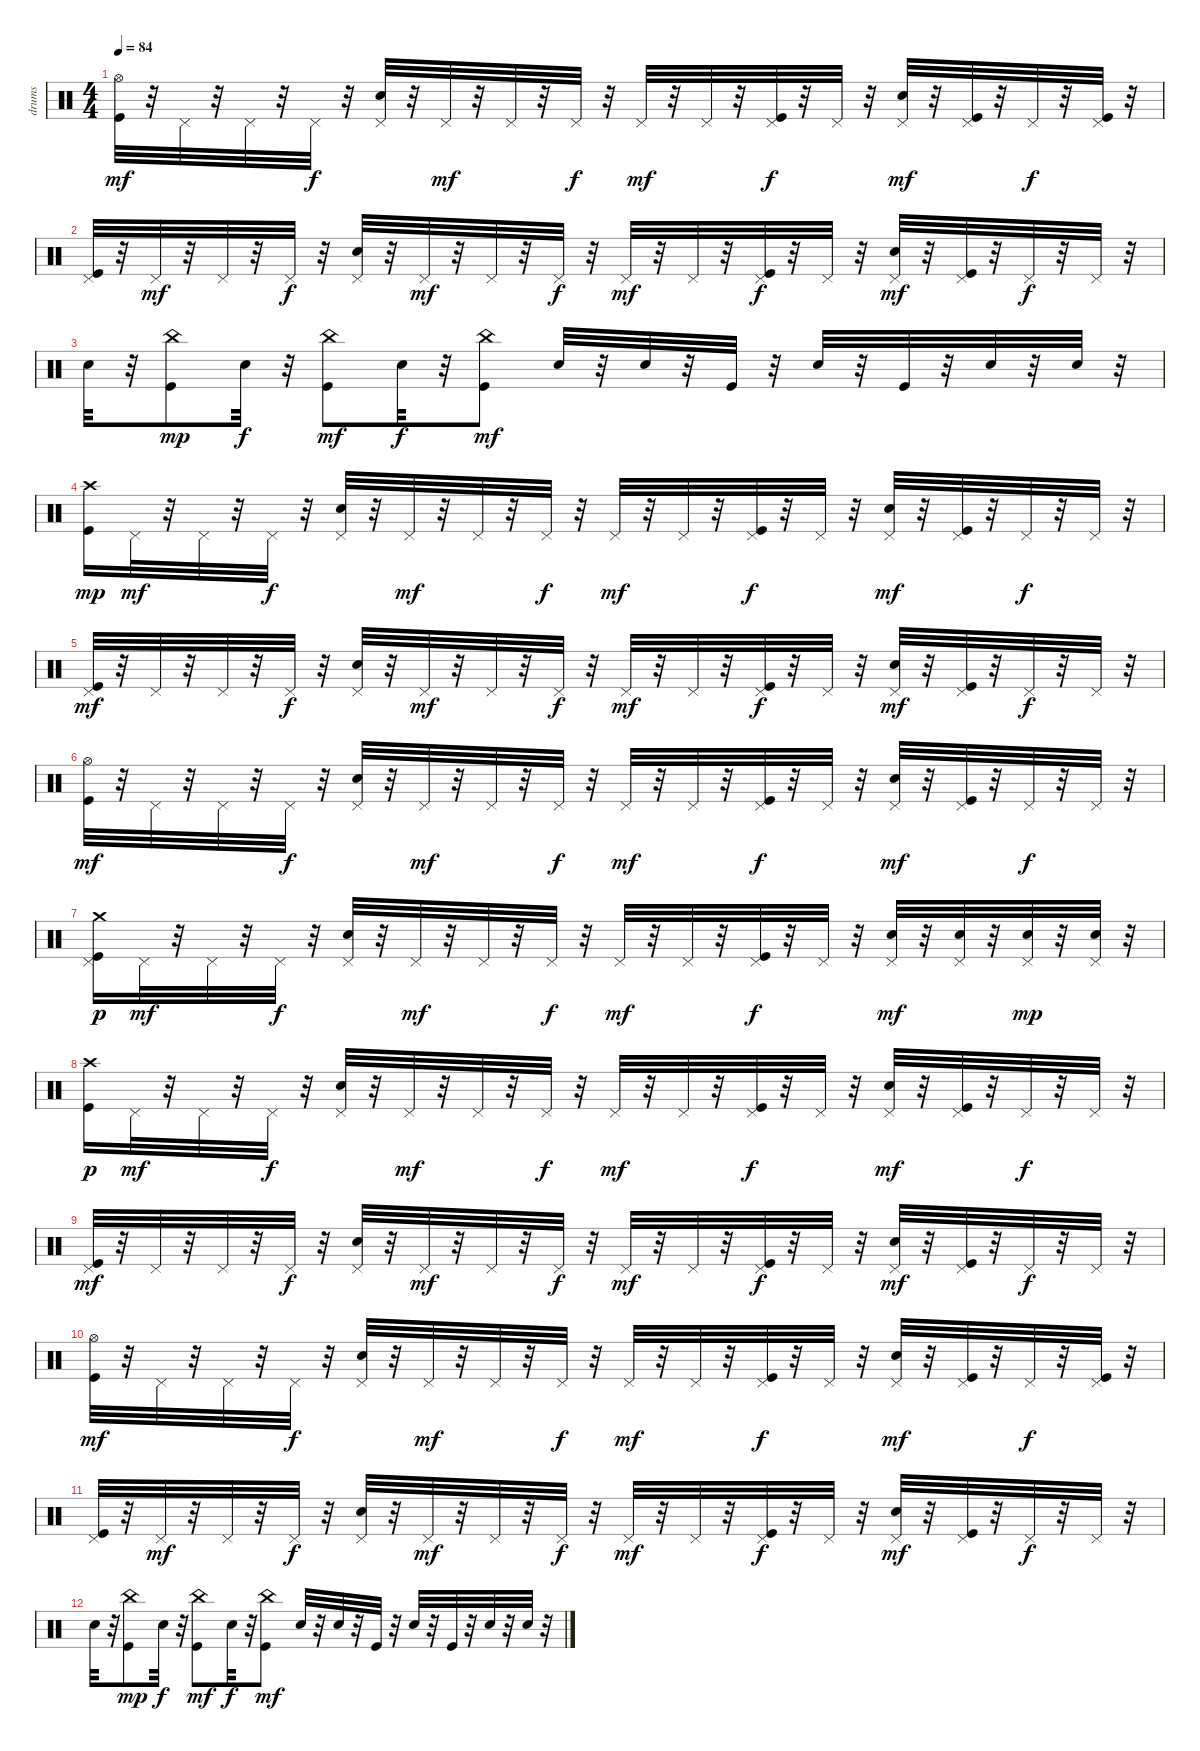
\track ("drums" "drums") {instrument percussion}
\staff {score}
\articulation defaults
\ts (4 4)
\tempo 84
\clef neutral
\ks c
("Kick (hit)" "Hi-Hat (open)").32{dy mf} r.32 "Pedal Hi-Hat (hit)".32 r.32 "Pedal Hi-Hat (hit)".32 r.32 "Pedal Hi-Hat (hit)".32{dy f} r.32 ("Snare (hit) 2" "Pedal Hi-Hat (hit)").32 r.32 "Pedal Hi-Hat (hit)".32{dy mf} r.32 "Pedal Hi-Hat (hit)".32 r.32 "Pedal Hi-Hat (hit)".32{dy f} r.32 "Pedal Hi-Hat (hit)".32{dy mf} r.32 "Pedal Hi-Hat (hit)".32 r.32 ("Kick (hit)" "Pedal Hi-Hat (hit)").32{dy f} r.32 "Pedal Hi-Hat (hit)".32 r.32 ("Snare (hit) 2" "Pedal Hi-Hat (hit)").32{dy mf} r.32 ("Kick (hit)" "Pedal Hi-Hat (hit)").32 r.32 "Pedal Hi-Hat (hit)".32{dy f} r.32 ("Kick (hit)" "Pedal Hi-Hat (hit)").32 r.32 |
("Kick (hit)" "Pedal Hi-Hat (hit)").32 r.32 "Pedal Hi-Hat (hit)".32{dy mf} r.32 "Pedal Hi-Hat (hit)".32 r.32 "Pedal Hi-Hat (hit)".32{dy f} r.32 ("Snare (hit) 2" "Pedal Hi-Hat (hit)").32 r.32 "Pedal Hi-Hat (hit)".32{dy mf} r.32 "Pedal Hi-Hat (hit)".32 r.32 "Pedal Hi-Hat (hit)".32{dy f} r.32 "Pedal Hi-Hat (hit)".32{dy mf} r.32 "Pedal Hi-Hat (hit)".32 r.32 ("Kick (hit)" "Pedal Hi-Hat (hit)").32{dy f} r.32 "Pedal Hi-Hat (hit)".32 r.32 ("Snare (hit) 2" "Pedal Hi-Hat (hit)").32{dy mf} r.32 ("Kick (hit)" "Pedal Hi-Hat (hit)").32 r.32 "Pedal Hi-Hat (hit)".32{dy f} r.32 "Pedal Hi-Hat (hit)".32 r.32 |
"Snare (hit) 2".32 r.32 ("Kick (hit)" "China (hit)").8{dy mp} "Snare (hit) 2".32{dy f} r.32 ("Kick (hit)" "China (hit)").8{dy mf} "Snare (hit) 2".32{dy f} r.32 ("Kick (hit)" "China (hit)").8{dy mf} "Snare (hit) 2".32 r.32 "Snare (hit) 2".32 r.32 "Kick (hit)".32 r.32 "Snare (hit) 2".32 r.32 "Kick (hit)".32 r.32 "Snare (hit) 2".32 r.32 "Snare (hit) 2".32 r.32 |
("Kick (hit)" "Crash high (hit)").16{dy mp} "Pedal Hi-Hat (hit)".32{dy mf} r.32 "Pedal Hi-Hat (hit)".32 r.32 "Pedal Hi-Hat (hit)".32{dy f} r.32 ("Snare (hit) 2" "Pedal Hi-Hat (hit)").32 r.32 "Pedal Hi-Hat (hit)".32{dy mf} r.32 "Pedal Hi-Hat (hit)".32 r.32 "Pedal Hi-Hat (hit)".32{dy f} r.32 "Pedal Hi-Hat (hit)".32{dy mf} r.32 "Pedal Hi-Hat (hit)".32 r.32 ("Kick (hit)" "Pedal Hi-Hat (hit)").32{dy f} r.32 "Pedal Hi-Hat (hit)".32 r.32 ("Snare (hit) 2" "Pedal Hi-Hat (hit)").32{dy mf} r.32 ("Kick (hit)" "Pedal Hi-Hat (hit)").32 r.32 "Pedal Hi-Hat (hit)".32{dy f} r.32 "Pedal Hi-Hat (hit)".32 r.32 |
("Kick (hit)" "Pedal Hi-Hat (hit)").32{dy mf} r.32 "Pedal Hi-Hat (hit)".32 r.32 "Pedal Hi-Hat (hit)".32 r.32 "Pedal Hi-Hat (hit)".32{dy f} r.32 ("Snare (hit) 2" "Pedal Hi-Hat (hit)").32 r.32 "Pedal Hi-Hat (hit)".32{dy mf} r.32 "Pedal Hi-Hat (hit)".32 r.32 "Pedal Hi-Hat (hit)".32{dy f} r.32 "Pedal Hi-Hat (hit)".32{dy mf} r.32 "Pedal Hi-Hat (hit)".32 r.32 ("Kick (hit)" "Pedal Hi-Hat (hit)").32{dy f} r.32 "Pedal Hi-Hat (hit)".32 r.32 ("Snare (hit) 2" "Pedal Hi-Hat (hit)").32{dy mf} r.32 ("Kick (hit)" "Pedal Hi-Hat (hit)").32 r.32 "Pedal Hi-Hat (hit)".32{dy f} r.32 "Pedal Hi-Hat (hit)".32 r.32 |
("Kick (hit)" "Hi-Hat (open)").32{dy mf} r.32 "Pedal Hi-Hat (hit)".32 r.32 "Pedal Hi-Hat (hit)".32 r.32 "Pedal Hi-Hat (hit)".32{dy f} r.32 ("Snare (hit) 2" "Pedal Hi-Hat (hit)").32 r.32 "Pedal Hi-Hat (hit)".32{dy mf} r.32 "Pedal Hi-Hat (hit)".32 r.32 "Pedal Hi-Hat (hit)".32{dy f} r.32 "Pedal Hi-Hat (hit)".32{dy mf} r.32 "Pedal Hi-Hat (hit)".32 r.32 ("Kick (hit)" "Pedal Hi-Hat (hit)").32{dy f} r.32 "Pedal Hi-Hat (hit)".32 r.32 ("Snare (hit) 2" "Pedal Hi-Hat (hit)").32{dy mf} r.32 ("Kick (hit)" "Pedal Hi-Hat (hit)").32 r.32 "Pedal Hi-Hat (hit)".32{dy f} r.32 "Pedal Hi-Hat (hit)".32 r.32 |
("Kick (hit)" "Pedal Hi-Hat (hit)" "Crash medium (hit)").16{dy p} "Pedal Hi-Hat (hit)".32{dy mf} r.32 "Pedal Hi-Hat (hit)".32 r.32 "Pedal Hi-Hat (hit)".32{dy f} r.32 ("Snare (hit) 2" "Pedal Hi-Hat (hit)").32 r.32 "Pedal Hi-Hat (hit)".32{dy mf} r.32 "Pedal Hi-Hat (hit)".32 r.32 "Pedal Hi-Hat (hit)".32{dy f} r.32 "Pedal Hi-Hat (hit)".32{dy mf} r.32 "Pedal Hi-Hat (hit)".32 r.32 ("Kick (hit)" "Pedal Hi-Hat (hit)").32{dy f} r.32 "Pedal Hi-Hat (hit)".32 r.32 ("Snare (hit) 2" "Pedal Hi-Hat (hit)").32{dy mf} r.32 ("Snare (hit) 2" "Pedal Hi-Hat (hit)").32 r.32 ("Snare (hit) 2" "Pedal Hi-Hat (hit)").32{dy mp} r.32 ("Snare (hit) 2" "Pedal Hi-Hat (hit)").32 r.32 |
("Kick (hit)" "Crash high (hit)").16{dy p} "Pedal Hi-Hat (hit)".32{dy mf} r.32 "Pedal Hi-Hat (hit)".32 r.32 "Pedal Hi-Hat (hit)".32{dy f} r.32 ("Snare (hit) 2" "Pedal Hi-Hat (hit)").32 r.32 "Pedal Hi-Hat (hit)".32{dy mf} r.32 "Pedal Hi-Hat (hit)".32 r.32 "Pedal Hi-Hat (hit)".32{dy f} r.32 "Pedal Hi-Hat (hit)".32{dy mf} r.32 "Pedal Hi-Hat (hit)".32 r.32 ("Kick (hit)" "Pedal Hi-Hat (hit)").32{dy f} r.32 "Pedal Hi-Hat (hit)".32 r.32 ("Snare (hit) 2" "Pedal Hi-Hat (hit)").32{dy mf} r.32 ("Kick (hit)" "Pedal Hi-Hat (hit)").32 r.32 "Pedal Hi-Hat (hit)".32{dy f} r.32 "Pedal Hi-Hat (hit)".32 r.32 |
("Kick (hit)" "Pedal Hi-Hat (hit)").32{dy mf} r.32 "Pedal Hi-Hat (hit)".32 r.32 "Pedal Hi-Hat (hit)".32 r.32 "Pedal Hi-Hat (hit)".32{dy f} r.32 ("Snare (hit) 2" "Pedal Hi-Hat (hit)").32 r.32 "Pedal Hi-Hat (hit)".32{dy mf} r.32 "Pedal Hi-Hat (hit)".32 r.32 "Pedal Hi-Hat (hit)".32{dy f} r.32 "Pedal Hi-Hat (hit)".32{dy mf} r.32 "Pedal Hi-Hat (hit)".32 r.32 ("Kick (hit)" "Pedal Hi-Hat (hit)").32{dy f} r.32 "Pedal Hi-Hat (hit)".32 r.32 ("Snare (hit) 2" "Pedal Hi-Hat (hit)").32{dy mf} r.32 ("Kick (hit)" "Pedal Hi-Hat (hit)").32 r.32 "Pedal Hi-Hat (hit)".32{dy f} r.32 "Pedal Hi-Hat (hit)".32 r.32 |
("Kick (hit)" "Hi-Hat (open)").32{dy mf} r.32 "Pedal Hi-Hat (hit)".32 r.32 "Pedal Hi-Hat (hit)".32 r.32 "Pedal Hi-Hat (hit)".32{dy f} r.32 ("Snare (hit) 2" "Pedal Hi-Hat (hit)").32 r.32 "Pedal Hi-Hat (hit)".32{dy mf} r.32 "Pedal Hi-Hat (hit)".32 r.32 "Pedal Hi-Hat (hit)".32{dy f} r.32 "Pedal Hi-Hat (hit)".32{dy mf} r.32 "Pedal Hi-Hat (hit)".32 r.32 ("Kick (hit)" "Pedal Hi-Hat (hit)").32{dy f} r.32 "Pedal Hi-Hat (hit)".32 r.32 ("Snare (hit) 2" "Pedal Hi-Hat (hit)").32{dy mf} r.32 ("Kick (hit)" "Pedal Hi-Hat (hit)").32 r.32 "Pedal Hi-Hat (hit)".32{dy f} r.32 ("Kick (hit)" "Pedal Hi-Hat (hit)").32 r.32 |
("Kick (hit)" "Pedal Hi-Hat (hit)").32 r.32 "Pedal Hi-Hat (hit)".32{dy mf} r.32 "Pedal Hi-Hat (hit)".32 r.32 "Pedal Hi-Hat (hit)".32{dy f} r.32 ("Snare (hit) 2" "Pedal Hi-Hat (hit)").32 r.32 "Pedal Hi-Hat (hit)".32{dy mf} r.32 "Pedal Hi-Hat (hit)".32 r.32 "Pedal Hi-Hat (hit)".32{dy f} r.32 "Pedal Hi-Hat (hit)".32{dy mf} r.32 "Pedal Hi-Hat (hit)".32 r.32 ("Kick (hit)" "Pedal Hi-Hat (hit)").32{dy f} r.32 "Pedal Hi-Hat (hit)".32 r.32 ("Snare (hit) 2" "Pedal Hi-Hat (hit)").32{dy mf} r.32 ("Kick (hit)" "Pedal Hi-Hat (hit)").32 r.32 "Pedal Hi-Hat (hit)".32{dy f} r.32 "Pedal Hi-Hat (hit)".32 r.32 |
"Snare (hit) 2".32 r.32 ("Kick (hit)" "China (hit)").8{dy mp} "Snare (hit) 2".32{dy f} r.32 ("Kick (hit)" "China (hit)").8{dy mf} "Snare (hit) 2".32{dy f} r.32 ("Kick (hit)" "China (hit)").8{dy mf} "Snare (hit) 2".32 r.32 "Snare (hit) 2".32 r.32 "Kick (hit)".32 r.32 "Snare (hit) 2".32 r.32 "Kick (hit)".32 r.32 "Snare (hit) 2".32 r.32 "Snare (hit) 2".32 r.32
